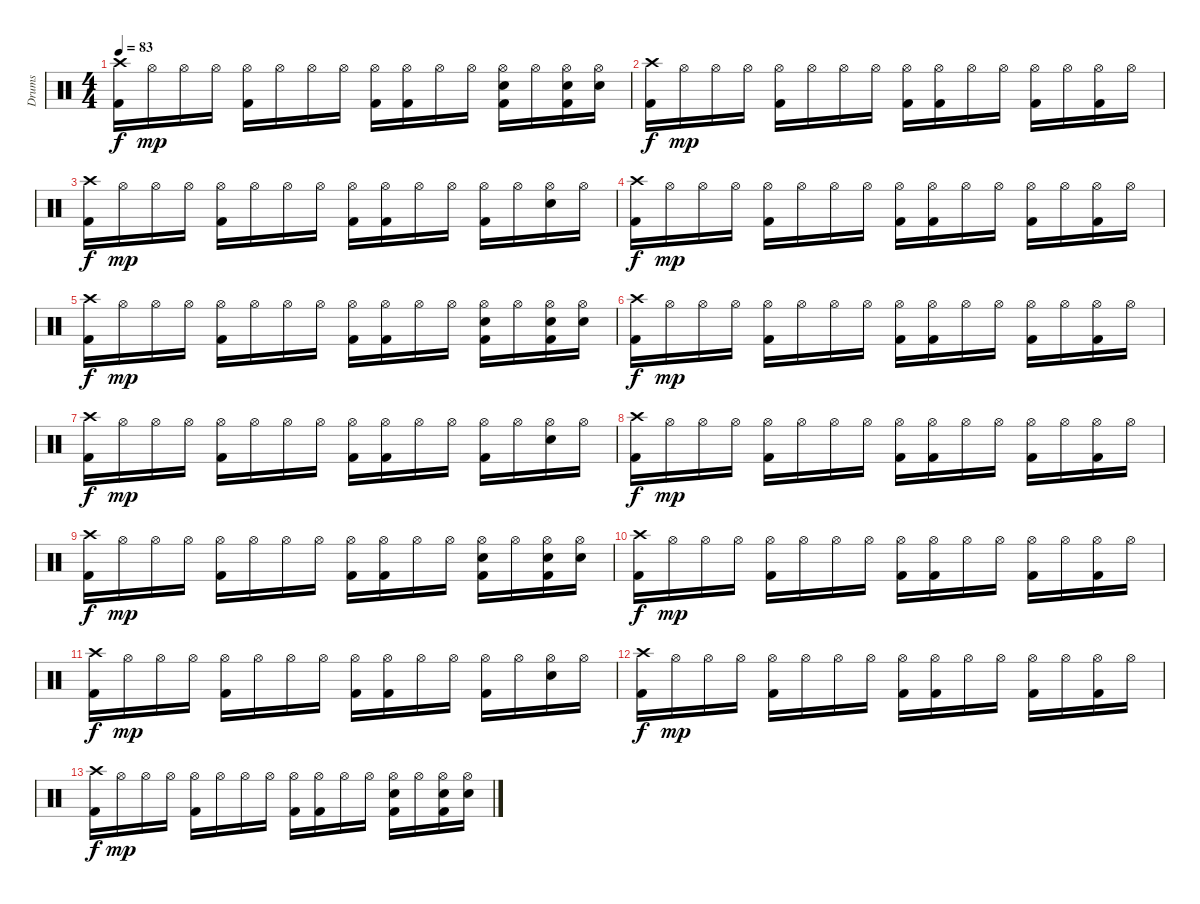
\track ("Drums" "Drums") {instrument percussion}
\staff {score}
\articulation defaults
\ts (4 4)
\tempo 83
\clef neutral
\ks c
("Crash high (hit)" "Kick (hit) 2").16{dy f} "Hi-Hat (open)".16{dy mp} "Hi-Hat (open)".16 "Hi-Hat (open)".16 ("Hi-Hat (open)" "Kick (hit) 2").16 "Hi-Hat (open)".16 "Hi-Hat (open)".16 "Hi-Hat (open)".16 ("Hi-Hat (open)" "Kick (hit) 2").16 ("Hi-Hat (open)" "Kick (hit) 2").16 "Hi-Hat (open)".16 "Hi-Hat (open)".16 ("Hi-Hat (open)" "Snare (hit) 2" "Kick (hit) 2").16 "Hi-Hat (open)".16 ("Hi-Hat (open)" "Snare (hit) 2" "Kick (hit) 2").16 ("Hi-Hat (open)" "Snare (hit) 2").16 |
("Crash high (hit)" "Kick (hit) 2").16{dy f} "Hi-Hat (open)".16{dy mp} "Hi-Hat (open)".16 "Hi-Hat (open)".16 ("Hi-Hat (open)" "Kick (hit) 2").16 "Hi-Hat (open)".16 "Hi-Hat (open)".16 "Hi-Hat (open)".16 ("Hi-Hat (open)" "Kick (hit) 2").16 ("Hi-Hat (open)" "Kick (hit) 2").16 "Hi-Hat (open)".16 "Hi-Hat (open)".16 ("Hi-Hat (open)" "Kick (hit) 2").16 "Hi-Hat (open)".16 ("Hi-Hat (open)" "Kick (hit) 2").16 "Hi-Hat (open)".16 |
("Crash high (hit)" "Kick (hit) 2").16{dy f} "Hi-Hat (open)".16{dy mp} "Hi-Hat (open)".16 "Hi-Hat (open)".16 ("Hi-Hat (open)" "Kick (hit) 2").16 "Hi-Hat (open)".16 "Hi-Hat (open)".16 "Hi-Hat (open)".16 ("Hi-Hat (open)" "Kick (hit) 2").16 ("Hi-Hat (open)" "Kick (hit) 2").16 "Hi-Hat (open)".16 "Hi-Hat (open)".16 ("Hi-Hat (open)" "Kick (hit) 2").16 "Hi-Hat (open)".16 ("Hi-Hat (open)" "Snare (hit) 2").16 "Hi-Hat (open)".16 |
("Crash high (hit)" "Kick (hit) 2").16{dy f} "Hi-Hat (open)".16{dy mp} "Hi-Hat (open)".16 "Hi-Hat (open)".16 ("Hi-Hat (open)" "Kick (hit) 2").16 "Hi-Hat (open)".16 "Hi-Hat (open)".16 "Hi-Hat (open)".16 ("Hi-Hat (open)" "Kick (hit) 2").16 ("Hi-Hat (open)" "Kick (hit) 2").16 "Hi-Hat (open)".16 "Hi-Hat (open)".16 ("Hi-Hat (open)" "Kick (hit) 2").16 "Hi-Hat (open)".16 ("Hi-Hat (open)" "Kick (hit) 2").16 "Hi-Hat (open)".16 |
("Crash high (hit)" "Kick (hit) 2").16{dy f} "Hi-Hat (open)".16{dy mp} "Hi-Hat (open)".16 "Hi-Hat (open)".16 ("Hi-Hat (open)" "Kick (hit) 2").16 "Hi-Hat (open)".16 "Hi-Hat (open)".16 "Hi-Hat (open)".16 ("Hi-Hat (open)" "Kick (hit) 2").16 ("Hi-Hat (open)" "Kick (hit) 2").16 "Hi-Hat (open)".16 "Hi-Hat (open)".16 ("Hi-Hat (open)" "Snare (hit) 2" "Kick (hit) 2").16 "Hi-Hat (open)".16 ("Hi-Hat (open)" "Snare (hit) 2" "Kick (hit) 2").16 ("Hi-Hat (open)" "Snare (hit) 2").16 |
("Crash high (hit)" "Kick (hit) 2").16{dy f} "Hi-Hat (open)".16{dy mp} "Hi-Hat (open)".16 "Hi-Hat (open)".16 ("Hi-Hat (open)" "Kick (hit) 2").16 "Hi-Hat (open)".16 "Hi-Hat (open)".16 "Hi-Hat (open)".16 ("Hi-Hat (open)" "Kick (hit) 2").16 ("Hi-Hat (open)" "Kick (hit) 2").16 "Hi-Hat (open)".16 "Hi-Hat (open)".16 ("Hi-Hat (open)" "Kick (hit) 2").16 "Hi-Hat (open)".16 ("Hi-Hat (open)" "Kick (hit) 2").16 "Hi-Hat (open)".16 |
("Crash high (hit)" "Kick (hit) 2").16{dy f} "Hi-Hat (open)".16{dy mp} "Hi-Hat (open)".16 "Hi-Hat (open)".16 ("Hi-Hat (open)" "Kick (hit) 2").16 "Hi-Hat (open)".16 "Hi-Hat (open)".16 "Hi-Hat (open)".16 ("Hi-Hat (open)" "Kick (hit) 2").16 ("Hi-Hat (open)" "Kick (hit) 2").16 "Hi-Hat (open)".16 "Hi-Hat (open)".16 ("Hi-Hat (open)" "Kick (hit) 2").16 "Hi-Hat (open)".16 ("Hi-Hat (open)" "Snare (hit) 2").16 "Hi-Hat (open)".16 |
("Crash high (hit)" "Kick (hit) 2").16{dy f} "Hi-Hat (open)".16{dy mp} "Hi-Hat (open)".16 "Hi-Hat (open)".16 ("Hi-Hat (open)" "Kick (hit) 2").16 "Hi-Hat (open)".16 "Hi-Hat (open)".16 "Hi-Hat (open)".16 ("Hi-Hat (open)" "Kick (hit) 2").16 ("Hi-Hat (open)" "Kick (hit) 2").16 "Hi-Hat (open)".16 "Hi-Hat (open)".16 ("Hi-Hat (open)" "Kick (hit) 2").16 "Hi-Hat (open)".16 ("Hi-Hat (open)" "Kick (hit) 2").16 "Hi-Hat (open)".16 |
("Crash high (hit)" "Kick (hit) 2").16{dy f} "Hi-Hat (open)".16{dy mp} "Hi-Hat (open)".16 "Hi-Hat (open)".16 ("Hi-Hat (open)" "Kick (hit) 2").16 "Hi-Hat (open)".16 "Hi-Hat (open)".16 "Hi-Hat (open)".16 ("Hi-Hat (open)" "Kick (hit) 2").16 ("Hi-Hat (open)" "Kick (hit) 2").16 "Hi-Hat (open)".16 "Hi-Hat (open)".16 ("Hi-Hat (open)" "Snare (hit) 2" "Kick (hit) 2").16 "Hi-Hat (open)".16 ("Hi-Hat (open)" "Snare (hit) 2" "Kick (hit) 2").16 ("Hi-Hat (open)" "Snare (hit) 2").16 |
("Crash high (hit)" "Kick (hit) 2").16{dy f} "Hi-Hat (open)".16{dy mp} "Hi-Hat (open)".16 "Hi-Hat (open)".16 ("Hi-Hat (open)" "Kick (hit) 2").16 "Hi-Hat (open)".16 "Hi-Hat (open)".16 "Hi-Hat (open)".16 ("Hi-Hat (open)" "Kick (hit) 2").16 ("Hi-Hat (open)" "Kick (hit) 2").16 "Hi-Hat (open)".16 "Hi-Hat (open)".16 ("Hi-Hat (open)" "Kick (hit) 2").16 "Hi-Hat (open)".16 ("Hi-Hat (open)" "Kick (hit) 2").16 "Hi-Hat (open)".16 |
("Crash high (hit)" "Kick (hit) 2").16{dy f} "Hi-Hat (open)".16{dy mp} "Hi-Hat (open)".16 "Hi-Hat (open)".16 ("Hi-Hat (open)" "Kick (hit) 2").16 "Hi-Hat (open)".16 "Hi-Hat (open)".16 "Hi-Hat (open)".16 ("Hi-Hat (open)" "Kick (hit) 2").16 ("Hi-Hat (open)" "Kick (hit) 2").16 "Hi-Hat (open)".16 "Hi-Hat (open)".16 ("Hi-Hat (open)" "Kick (hit) 2").16 "Hi-Hat (open)".16 ("Hi-Hat (open)" "Snare (hit) 2").16 "Hi-Hat (open)".16 |
("Crash high (hit)" "Kick (hit) 2").16{dy f} "Hi-Hat (open)".16{dy mp} "Hi-Hat (open)".16 "Hi-Hat (open)".16 ("Hi-Hat (open)" "Kick (hit) 2").16 "Hi-Hat (open)".16 "Hi-Hat (open)".16 "Hi-Hat (open)".16 ("Hi-Hat (open)" "Kick (hit) 2").16 ("Hi-Hat (open)" "Kick (hit) 2").16 "Hi-Hat (open)".16 "Hi-Hat (open)".16 ("Hi-Hat (open)" "Kick (hit) 2").16 "Hi-Hat (open)".16 ("Hi-Hat (open)" "Kick (hit) 2").16 "Hi-Hat (open)".16 |
("Crash high (hit)" "Kick (hit) 2").16{dy f} "Hi-Hat (open)".16{dy mp} "Hi-Hat (open)".16 "Hi-Hat (open)".16 ("Hi-Hat (open)" "Kick (hit) 2").16 "Hi-Hat (open)".16 "Hi-Hat (open)".16 "Hi-Hat (open)".16 ("Hi-Hat (open)" "Kick (hit) 2").16 ("Hi-Hat (open)" "Kick (hit) 2").16 "Hi-Hat (open)".16 "Hi-Hat (open)".16 ("Hi-Hat (open)" "Snare (hit) 2" "Kick (hit) 2").16 "Hi-Hat (open)".16 ("Hi-Hat (open)" "Snare (hit) 2" "Kick (hit) 2").16 ("Hi-Hat (open)" "Snare (hit) 2").16
